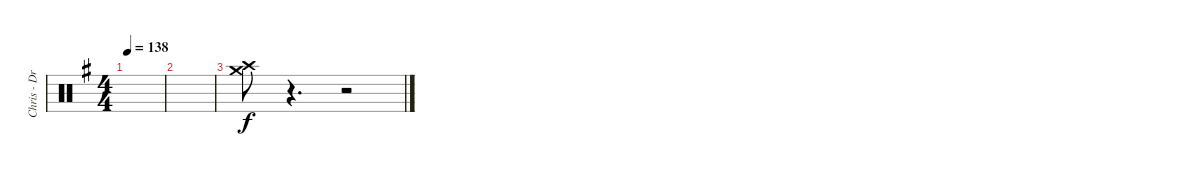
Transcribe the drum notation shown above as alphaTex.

\track ("Chris - Drums" "Chris - Dr") {instrument percussion}
\staff {score}
\articulation defaults
\ts (4 4)
\tempo 138
\clef neutral
\ks g
|
|
("Crash medium (hit)" "Crash high (hit)").8 r.4{d volume 0} r.2
